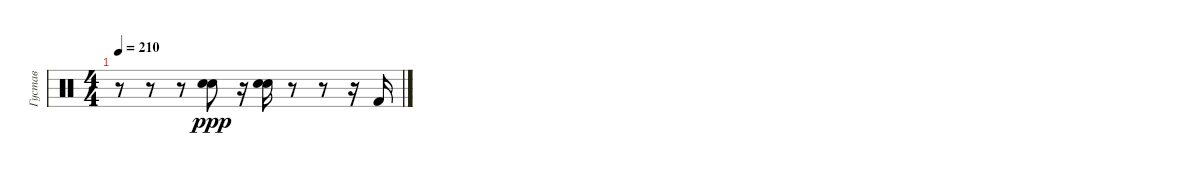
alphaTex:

\track ("Густав" "Густав") {instrument percussion}
\staff {score}
\articulation defaults
\ts (4 4)
\tempo 210
\clef neutral
\ks c
r.8{dy ppp} r.8 r.8 ("Snare (hit) 2" "Electric Snare (hit)").8 r.16 ("Snare (hit) 2" "Electric Snare (hit)").16 r.8 r.8 r.16 "Kick (hit) 2".16
